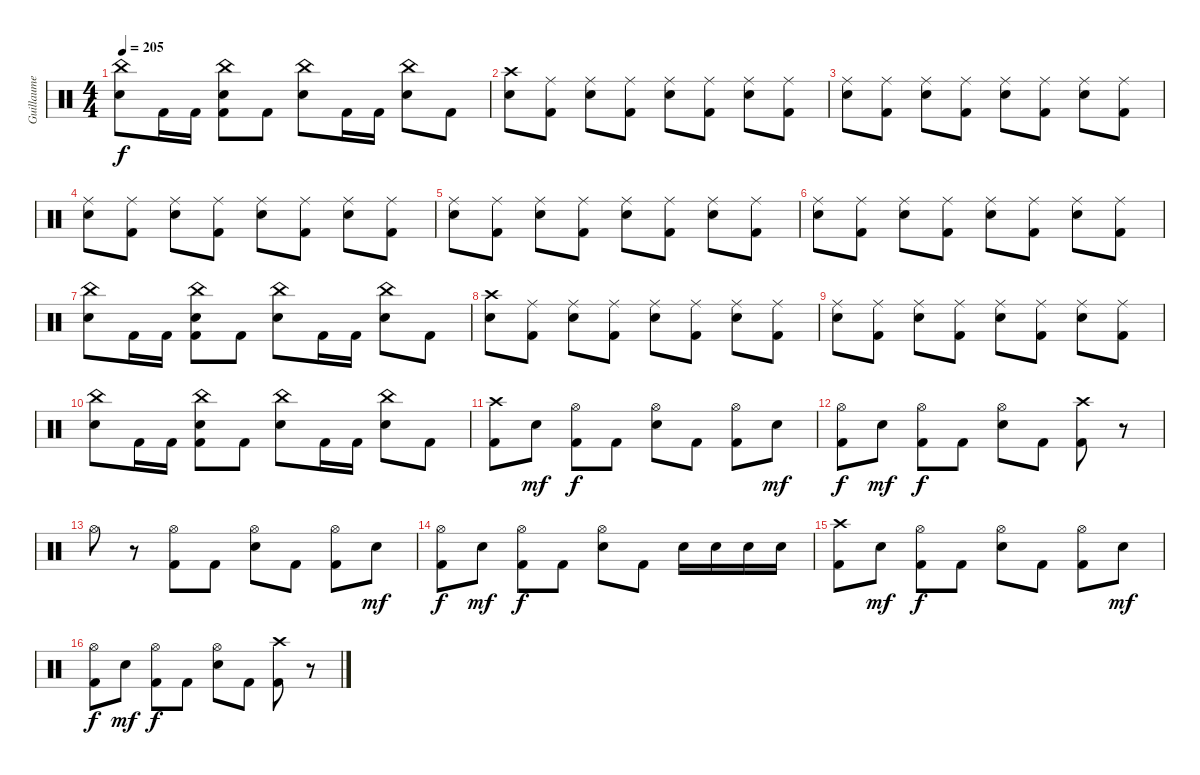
\track ("Guillaume" "Guillaume") {instrument percussion}
\staff {score}
\articulation defaults
\ts (4 4)
\tempo 205
\clef neutral
\ks c
("China (hit)" "Snare (hit) 2").8{dy f} "Kick (hit) 2".16 "Kick (hit) 2".16 ("China (hit)" "Snare (hit) 2" "Kick (hit) 2").8 "Kick (hit) 2".8 ("China (hit)" "Snare (hit) 2").8 "Kick (hit) 2".16 "Kick (hit) 2".16 ("China (hit)" "Snare (hit) 2").8 "Kick (hit) 2".8 |
("Crash high (hit)" "Snare (hit) 2").8 ("Ride (middle)" "Kick (hit) 2").8 ("Ride (middle)" "Snare (hit) 2").8 ("Ride (middle)" "Kick (hit) 2").8 ("Ride (middle)" "Snare (hit) 2").8 ("Ride (middle)" "Kick (hit) 2").8 ("Ride (middle)" "Snare (hit) 2").8 ("Ride (middle)" "Kick (hit) 2").8 |
("Ride (middle)" "Snare (hit) 2").8 ("Ride (middle)" "Kick (hit) 2").8 ("Ride (middle)" "Snare (hit) 2").8 ("Ride (middle)" "Kick (hit) 2").8 ("Ride (middle)" "Snare (hit) 2").8 ("Ride (middle)" "Kick (hit) 2").8 ("Ride (middle)" "Snare (hit) 2").8 ("Ride (middle)" "Kick (hit) 2").8 |
("Ride (middle)" "Snare (hit) 2").8 ("Ride (middle)" "Kick (hit) 2").8 ("Ride (middle)" "Snare (hit) 2").8 ("Ride (middle)" "Kick (hit) 2").8 ("Ride (middle)" "Snare (hit) 2").8 ("Ride (middle)" "Kick (hit) 2").8 ("Ride (middle)" "Snare (hit) 2").8 ("Ride (middle)" "Kick (hit) 2").8 |
("Ride (middle)" "Snare (hit) 2").8 ("Ride (middle)" "Kick (hit) 2").8 ("Ride (middle)" "Snare (hit) 2").8 ("Ride (middle)" "Kick (hit) 2").8 ("Ride (middle)" "Snare (hit) 2").8 ("Ride (middle)" "Kick (hit) 2").8 ("Ride (middle)" "Snare (hit) 2").8 ("Ride (middle)" "Kick (hit) 2").8 |
("Ride (middle)" "Snare (hit) 2").8 ("Ride (middle)" "Kick (hit) 2").8 ("Ride (middle)" "Snare (hit) 2").8 ("Ride (middle)" "Kick (hit) 2").8 ("Ride (middle)" "Snare (hit) 2").8 ("Ride (middle)" "Kick (hit) 2").8 ("Ride (middle)" "Snare (hit) 2").8 ("Ride (middle)" "Kick (hit) 2").8 |
("China (hit)" "Snare (hit) 2").8 "Kick (hit) 2".16 "Kick (hit) 2".16 ("China (hit)" "Snare (hit) 2" "Kick (hit) 2").8 "Kick (hit) 2".8 ("China (hit)" "Snare (hit) 2").8 "Kick (hit) 2".16 "Kick (hit) 2".16 ("China (hit)" "Snare (hit) 2").8 "Kick (hit) 2".8 |
("Crash high (hit)" "Snare (hit) 2").8 ("Ride (middle)" "Kick (hit) 2").8 ("Ride (middle)" "Snare (hit) 2").8 ("Ride (middle)" "Kick (hit) 2").8 ("Ride (middle)" "Snare (hit) 2").8 ("Ride (middle)" "Kick (hit) 2").8 ("Ride (middle)" "Snare (hit) 2").8 ("Ride (middle)" "Kick (hit) 2").8 |
("Ride (middle)" "Snare (hit) 2").8 ("Ride (middle)" "Kick (hit) 2").8 ("Ride (middle)" "Snare (hit) 2").8 ("Ride (middle)" "Kick (hit) 2").8 ("Ride (middle)" "Snare (hit) 2").8 ("Ride (middle)" "Kick (hit) 2").8 ("Ride (middle)" "Snare (hit) 2").8 ("Ride (middle)" "Kick (hit) 2").8 |
("China (hit)" "Snare (hit) 2").8 "Kick (hit) 2".16 "Kick (hit) 2".16 ("China (hit)" "Snare (hit) 2" "Kick (hit) 2").8 "Kick (hit) 2".8 ("China (hit)" "Snare (hit) 2").8 "Kick (hit) 2".16 "Kick (hit) 2".16 ("China (hit)" "Snare (hit) 2").8 "Kick (hit) 2".8 |
("Crash high (hit)" "Kick (hit) 2").8 "Snare (hit) 2".8{dy mf} ("Hi-Hat (open)" "Kick (hit) 2").8{dy f} "Kick (hit) 2".8 ("Hi-Hat (open)" "Snare (hit) 2").8 "Kick (hit) 2".8 ("Hi-Hat (open)" "Kick (hit) 2").8 "Snare (hit) 2".8{dy mf} |
("Hi-Hat (open)" "Kick (hit) 2").8{dy f} "Snare (hit) 2".8{dy mf} ("Hi-Hat (open)" "Kick (hit) 2").8{dy f} "Kick (hit) 2".8 ("Hi-Hat (open)" "Snare (hit) 2").8 "Kick (hit) 2".8 ("Crash high (hit)" "Kick (hit) 2").8 r.8 |
"Hi-Hat (open)".8 r.8 ("Hi-Hat (open)" "Kick (hit) 2").8 "Kick (hit) 2".8 ("Hi-Hat (open)" "Snare (hit) 2").8 "Kick (hit) 2".8 ("Hi-Hat (open)" "Kick (hit) 2").8 "Snare (hit) 2".8{dy mf} |
("Hi-Hat (open)" "Kick (hit) 2").8{dy f} "Snare (hit) 2".8{dy mf} ("Hi-Hat (open)" "Kick (hit) 2").8{dy f} "Kick (hit) 2".8 ("Hi-Hat (open)" "Snare (hit) 2").8 "Kick (hit) 2".8 "Snare (hit) 2".16 "Snare (hit) 2".16 "Snare (hit) 2".16 "Snare (hit) 2".16 |
("Crash high (hit)" "Kick (hit) 2").8 "Snare (hit) 2".8{dy mf} ("Hi-Hat (open)" "Kick (hit) 2").8{dy f} "Kick (hit) 2".8 ("Hi-Hat (open)" "Snare (hit) 2").8 "Kick (hit) 2".8 ("Hi-Hat (open)" "Kick (hit) 2").8 "Snare (hit) 2".8{dy mf} |
("Hi-Hat (open)" "Kick (hit) 2").8{dy f} "Snare (hit) 2".8{dy mf} ("Hi-Hat (open)" "Kick (hit) 2").8{dy f} "Kick (hit) 2".8 ("Hi-Hat (open)" "Snare (hit) 2").8 "Kick (hit) 2".8 ("Crash high (hit)" "Kick (hit) 2").8 r.8
